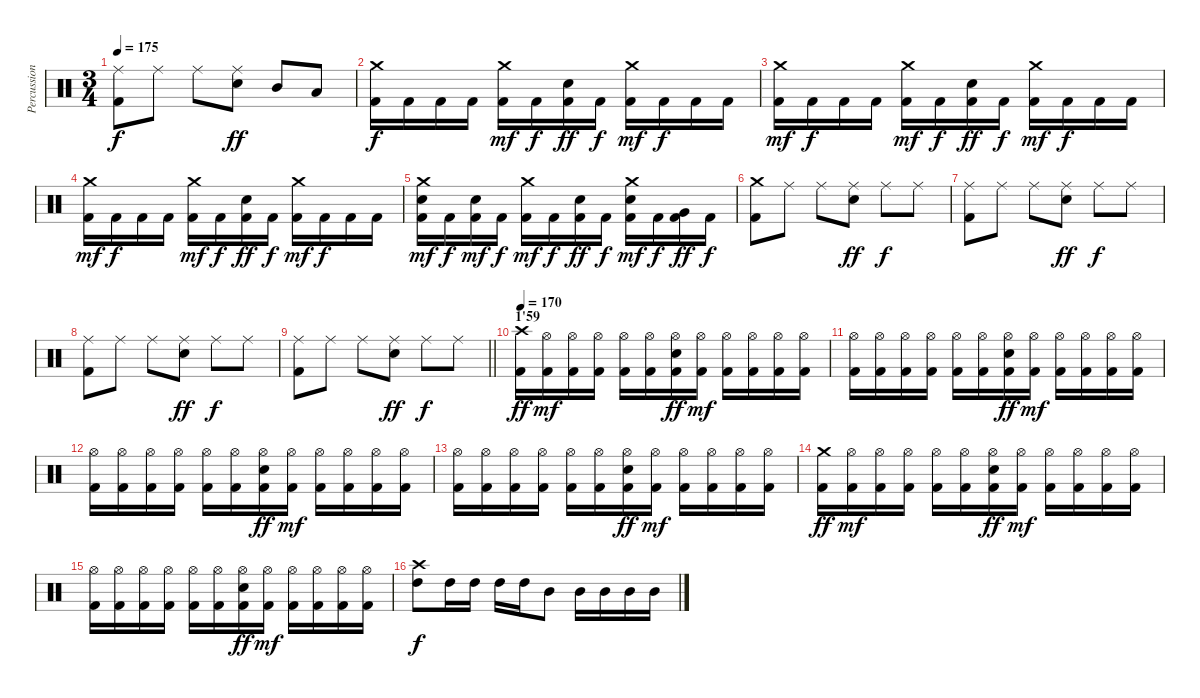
\track ("Percussions" "Percussion") {instrument percussion}
\staff {score}
\articulation defaults
\ts (3 4)
\tempo 175
\clef neutral
\ks c
("Ride (middle)" "Kick (hit) 2").8{dy f} "Ride (middle)".8 "Ride (middle)".8 ("Ride (middle)" "Electric Snare (hit)").8{dy ff} "Mid Tom (hit)".8 "Low Tom (hit)".8 |
("Crash medium (hit)" "Kick (hit) 2").16{dy f} "Kick (hit) 2".16 "Kick (hit) 2".16 "Kick (hit) 2".16 ("Crash medium (hit)" "Kick (hit) 2").16{dy mf} "Kick (hit) 2".16{dy f} ("Electric Snare (hit)" "Kick (hit) 2").16{dy ff} "Kick (hit) 2".16{dy f} ("Crash medium (hit)" "Kick (hit) 2").16{dy mf} "Kick (hit) 2".16{dy f} "Kick (hit) 2".16 "Kick (hit) 2".16 |
("Crash medium (hit)" "Kick (hit) 2").16{dy mf} "Kick (hit) 2".16{dy f} "Kick (hit) 2".16 "Kick (hit) 2".16 ("Crash medium (hit)" "Kick (hit) 2").16{dy mf} "Kick (hit) 2".16{dy f} ("Electric Snare (hit)" "Kick (hit) 2").16{dy ff} "Kick (hit) 2".16{dy f} ("Crash medium (hit)" "Kick (hit) 2").16{dy mf} "Kick (hit) 2".16{dy f} "Kick (hit) 2".16 "Kick (hit) 2".16 |
("Crash medium (hit)" "Kick (hit) 2").16{dy mf} "Kick (hit) 2".16{dy f} "Kick (hit) 2".16 "Kick (hit) 2".16 ("Crash medium (hit)" "Kick (hit) 2").16{dy mf} "Kick (hit) 2".16{dy f} ("Electric Snare (hit)" "Kick (hit) 2").16{dy ff} "Kick (hit) 2".16{dy f} ("Crash medium (hit)" "Kick (hit) 2").16{dy mf} "Kick (hit) 2".16{dy f} "Kick (hit) 2".16 "Kick (hit) 2".16 |
("Crash medium (hit)" "Electric Snare (hit)" "Kick (hit) 2").16{dy mf} "Kick (hit) 2".16{dy f} ("Electric Snare (hit)" "Kick (hit) 2").16{dy mf} "Kick (hit) 2".16{dy f} ("Crash medium (hit)" "Kick (hit) 2").16{dy mf} "Kick (hit) 2".16{dy f} ("Electric Snare (hit)" "Kick (hit) 2").16{dy ff} "Kick (hit) 2".16{dy f} ("Crash medium (hit)" "Electric Snare (hit)" "Kick (hit) 2").16{dy mf} "Kick (hit) 2".16{dy f} ("Very Low Tom (hit)" "Kick (hit) 2").16{dy ff} "Kick (hit) 2".16{dy f} |
("Crash medium (hit)" "Kick (hit) 2").8 "Ride (middle)".8 "Ride (middle)".8 ("Ride (middle)" "Electric Snare (hit)").8{dy ff} "Ride (middle)".8{dy f} "Ride (middle)".8 |
("Ride (middle)" "Kick (hit) 2").8 "Ride (middle)".8 "Ride (middle)".8 ("Ride (middle)" "Electric Snare (hit)").8{dy ff} "Ride (middle)".8{dy f} "Ride (middle)".8 |
("Ride (middle)" "Kick (hit) 2").8 "Ride (middle)".8 "Ride (middle)".8 ("Ride (middle)" "Electric Snare (hit)").8{dy ff} "Ride (middle)".8{dy f} "Ride (middle)".8 |
\barLineRight lightlight
("Ride (middle)" "Kick (hit) 2").8 "Ride (middle)".8 "Ride (middle)".8 ("Ride (middle)" "Electric Snare (hit)").8{dy ff} "Ride (middle)".8{dy f} "Ride (middle)".8 |
\section ("" "1'59")
\tempo 170
("Crash high (hit)" "Kick (hit) 2").16{dy ff} ("Hi-Hat (open)" "Kick (hit) 2").16{dy mf} ("Hi-Hat (open)" "Kick (hit) 2").16 ("Hi-Hat (open)" "Kick (hit) 2").16 ("Hi-Hat (open)" "Kick (hit) 2").16 ("Hi-Hat (open)" "Kick (hit) 2").16 ("Hi-Hat (open)" "Electric Snare (hit)" "Kick (hit) 2").16{dy ff} ("Hi-Hat (open)" "Kick (hit) 2").16{dy mf} ("Hi-Hat (open)" "Kick (hit) 2").16 ("Hi-Hat (open)" "Kick (hit) 2").16 ("Hi-Hat (open)" "Kick (hit) 2").16 ("Hi-Hat (open)" "Kick (hit) 2").16 |
("Hi-Hat (open)" "Kick (hit) 2").16 ("Hi-Hat (open)" "Kick (hit) 2").16 ("Hi-Hat (open)" "Kick (hit) 2").16 ("Hi-Hat (open)" "Kick (hit) 2").16 ("Hi-Hat (open)" "Kick (hit) 2").16 ("Hi-Hat (open)" "Kick (hit) 2").16 ("Hi-Hat (open)" "Electric Snare (hit)" "Kick (hit) 2").16{dy ff} ("Hi-Hat (open)" "Kick (hit) 2").16{dy mf} ("Hi-Hat (open)" "Kick (hit) 2").16 ("Hi-Hat (open)" "Kick (hit) 2").16 ("Hi-Hat (open)" "Kick (hit) 2").16 ("Hi-Hat (open)" "Kick (hit) 2").16 |
("Hi-Hat (open)" "Kick (hit) 2").16 ("Hi-Hat (open)" "Kick (hit) 2").16 ("Hi-Hat (open)" "Kick (hit) 2").16 ("Hi-Hat (open)" "Kick (hit) 2").16 ("Hi-Hat (open)" "Kick (hit) 2").16 ("Hi-Hat (open)" "Kick (hit) 2").16 ("Hi-Hat (open)" "Electric Snare (hit)" "Kick (hit) 2").16{dy ff} ("Hi-Hat (open)" "Kick (hit) 2").16{dy mf} ("Hi-Hat (open)" "Kick (hit) 2").16 ("Hi-Hat (open)" "Kick (hit) 2").16 ("Hi-Hat (open)" "Kick (hit) 2").16 ("Hi-Hat (open)" "Kick (hit) 2").16 |
("Hi-Hat (open)" "Kick (hit) 2").16 ("Hi-Hat (open)" "Kick (hit) 2").16 ("Hi-Hat (open)" "Kick (hit) 2").16 ("Hi-Hat (open)" "Kick (hit) 2").16 ("Hi-Hat (open)" "Kick (hit) 2").16 ("Hi-Hat (open)" "Kick (hit) 2").16 ("Hi-Hat (open)" "Electric Snare (hit)" "Kick (hit) 2").16{dy ff} ("Hi-Hat (open)" "Kick (hit) 2").16{dy mf} ("Hi-Hat (open)" "Kick (hit) 2").16 ("Hi-Hat (open)" "Kick (hit) 2").16 ("Hi-Hat (open)" "Kick (hit) 2").16 ("Hi-Hat (open)" "Kick (hit) 2").16 |
("Crash medium (hit)" "Kick (hit) 2").16{dy ff} ("Hi-Hat (open)" "Kick (hit) 2").16{dy mf} ("Hi-Hat (open)" "Kick (hit) 2").16 ("Hi-Hat (open)" "Kick (hit) 2").16 ("Hi-Hat (open)" "Kick (hit) 2").16 ("Hi-Hat (open)" "Kick (hit) 2").16 ("Hi-Hat (open)" "Electric Snare (hit)" "Kick (hit) 2").16{dy ff} ("Hi-Hat (open)" "Kick (hit) 2").16{dy mf} ("Hi-Hat (open)" "Kick (hit) 2").16 ("Hi-Hat (open)" "Kick (hit) 2").16 ("Hi-Hat (open)" "Kick (hit) 2").16 ("Hi-Hat (open)" "Kick (hit) 2").16 |
("Hi-Hat (open)" "Kick (hit) 2").16 ("Hi-Hat (open)" "Kick (hit) 2").16 ("Hi-Hat (open)" "Kick (hit) 2").16 ("Hi-Hat (open)" "Kick (hit) 2").16 ("Hi-Hat (open)" "Kick (hit) 2").16 ("Hi-Hat (open)" "Kick (hit) 2").16 ("Hi-Hat (open)" "Electric Snare (hit)" "Kick (hit) 2").16{dy ff} ("Hi-Hat (open)" "Kick (hit) 2").16{dy mf} ("Hi-Hat (open)" "Kick (hit) 2").16 ("Hi-Hat (open)" "Kick (hit) 2").16 ("Hi-Hat (open)" "Kick (hit) 2").16 ("Hi-Hat (open)" "Kick (hit) 2").16 |
("Crash high (hit)" "High Tom (hit)").8{dy f} "High Tom (hit)".16 "High Tom (hit)".16 "High Tom (hit)".16 "High Tom (hit)".16 "Mid Tom (hit)".8 "Mid Tom (hit)".16 "Mid Tom (hit)".16 "Mid Tom (hit)".16 "Mid Tom (hit)".16
